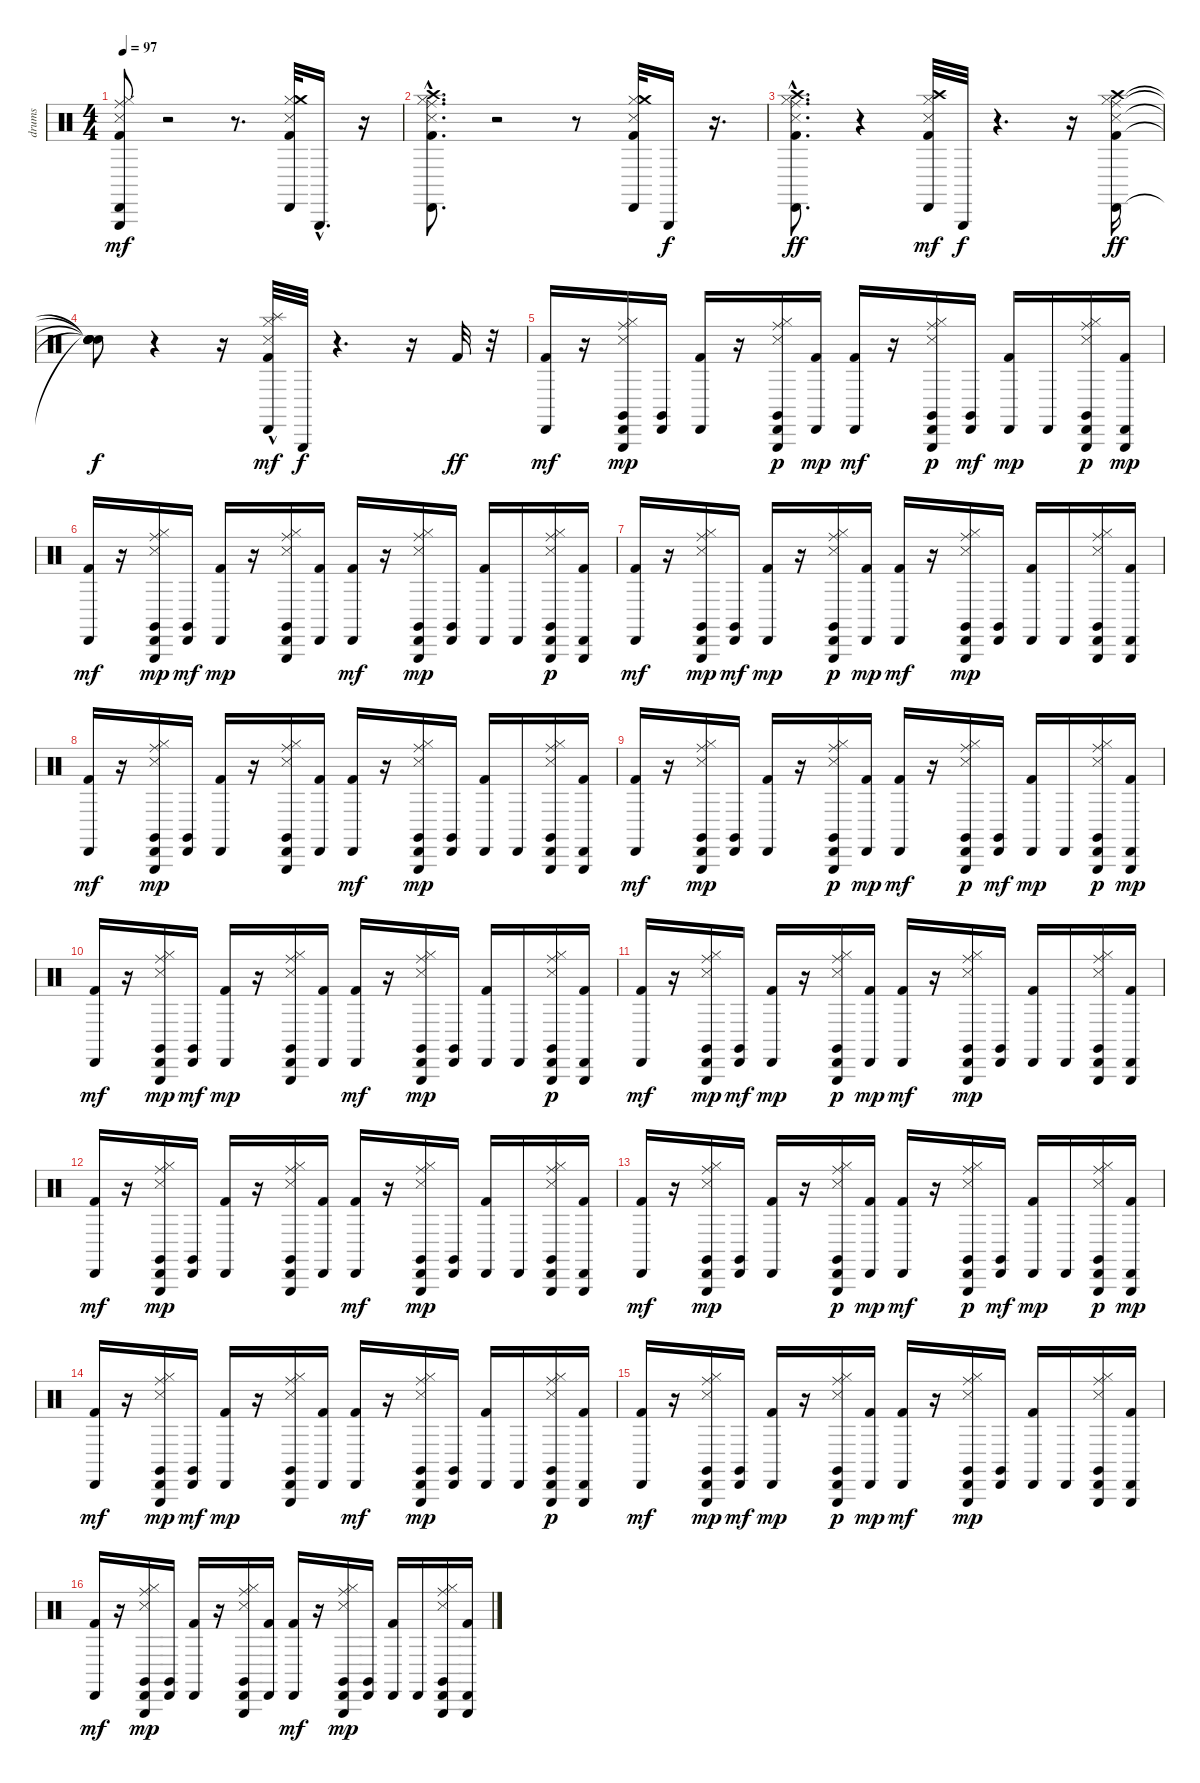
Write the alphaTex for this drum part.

\track ("drums" "drums") {instrument percussion}
\staff {score}
\articulation defaults
\ts (4 4)
\tempo 97
\clef neutral
\ks c
("Kick (hit) 2" "Snare (side stick) 3" "Hi-Hat (closed)" "Cabasa (hit)" "Ride (middle)" "Triangle (hit)").8{dy mf} r.2 r.8{d} ("Snare (side stick) 3" "Kick (hit) 2" "Hi-Hat (closed)" "Cabasa (hit)" "Crash medium (hit)").32 "Triangle (hit)"{hac}.16{d} r.16 |
("Kick (hit) 2" "Snare (side stick) 3" "Hi-Hat (closed)" "Cabasa (hit)" "Ride (middle)" "Crash high (hit)"{hac}).8{d} r.2 r.8 ("Kick (hit) 2" "Snare (side stick) 3" "Hi-Hat (closed)" "Cabasa (hit)" "Crash medium (hit)").32 "Triangle (hit)".16{dy f} r.16{d} |
("Kick (hit) 2" "Snare (side stick) 3" "Hi-Hat (closed)" "Cabasa (hit)" "Ride (middle)" "Crash high (hit)"{hac}).8{d dy ff} r.4 ("Kick (hit) 2" "Snare (side stick) 3" "Hi-Hat (closed)" "Cabasa (hit)" "Crash high (hit)").32{dy mf} "Triangle (hit)".32{dy f} r.4{d} r.16 ("Ride (middle)" "Kick (hit) 2" "Snare (side stick) 3" "Hi-Hat (closed)" "Cabasa (hit)" "Crash high (hit)").16{dy ff} |
("Snare (hit)"{t} "Snare (hit)"{t} "Snare (hit)"{t} "Snare (hit)"{t} "Snare (hit)"{t}).8{dy f} r.4 r.16 ("Kick (hit) 2"{hac} "Snare (side stick) 3" "Hi-Hat (closed)" "Cabasa (hit)" "Splash (hit)"{hac}).32{dy mf} "Triangle (hit)".32{dy f} r.4{d} r.16 "Kick (hit) 2".32{dy ff} r.32 |
("Kick (hit) 2" "Cabasa (hit)").16{dy mf} r.16 ("Snare (side stick) 3" "Hi-Hat (closed)" "Cabasa (hit)" "Claves (hit)" "Ride (middle)" "Triangle (hit)").16{dy mp} ("Cabasa (hit)" "Claves (hit)").16 ("Kick (hit) 2" "Cabasa (hit)").16 r.16 ("Snare (side stick) 3" "Hi-Hat (closed)" "Cabasa (hit)" "Claves (hit)" "Ride (middle)" "Triangle (hit)").16{dy p} ("Kick (hit) 2" "Cabasa (hit)").16{dy mp} ("Kick (hit) 2" "Cabasa (hit)").16{dy mf} r.16 ("Snare (side stick) 3" "Hi-Hat (closed)" "Cabasa (hit)" "Claves (hit)" "Ride (middle)" "Triangle (hit)").16{dy p} ("Cabasa (hit)" "Claves (hit)").16{dy mf} ("Kick (hit) 2" "Cabasa (hit)").16{dy mp} "Cabasa (hit)".16 ("Snare (side stick) 3" "Hi-Hat (closed)" "Cabasa (hit)" "Claves (hit)" "Ride (middle)" "Triangle (hit)").16{dy p} ("Kick (hit) 2" "Cabasa (hit)" "Triangle (hit)").16{dy mp} |
("Kick (hit) 2" "Cabasa (hit)").16{dy mf} r.16 ("Snare (side stick) 3" "Hi-Hat (closed)" "Cabasa (hit)" "Claves (hit)" "Ride (middle)" "Triangle (hit)").16{dy mp} ("Cabasa (hit)" "Claves (hit)").16{dy mf} ("Kick (hit) 2" "Cabasa (hit)").16{dy mp} r.16 ("Snare (side stick) 3" "Hi-Hat (closed)" "Cabasa (hit)" "Claves (hit)" "Ride (middle)" "Triangle (hit)").16 ("Kick (hit) 2" "Cabasa (hit)").16 ("Kick (hit) 2" "Cabasa (hit)").16{dy mf} r.16 ("Snare (side stick) 3" "Hi-Hat (closed)" "Cabasa (hit)" "Claves (hit)" "Ride (middle)" "Triangle (hit)").16{dy mp} ("Cabasa (hit)" "Claves (hit)").16 ("Kick (hit) 2" "Cabasa (hit)").16 "Cabasa (hit)".16 ("Snare (side stick) 3" "Hi-Hat (closed)" "Cabasa (hit)" "Claves (hit)" "Ride (middle)" "Triangle (hit)").16{dy p} ("Kick (hit) 2" "Cabasa (hit)" "Triangle (hit)").16 |
("Kick (hit) 2" "Cabasa (hit)").16{dy mf} r.16 ("Snare (side stick) 3" "Hi-Hat (closed)" "Cabasa (hit)" "Claves (hit)" "Ride (middle)" "Triangle (hit)").16{dy mp} ("Cabasa (hit)" "Claves (hit)").16{dy mf} ("Kick (hit) 2" "Cabasa (hit)").16{dy mp} r.16 ("Snare (side stick) 3" "Hi-Hat (closed)" "Cabasa (hit)" "Claves (hit)" "Ride (middle)" "Triangle (hit)").16{dy p} ("Kick (hit) 2" "Cabasa (hit)").16{dy mp} ("Kick (hit) 2" "Cabasa (hit)").16{dy mf} r.16 ("Snare (side stick) 3" "Hi-Hat (closed)" "Cabasa (hit)" "Claves (hit)" "Ride (middle)" "Triangle (hit)").16{dy mp} ("Cabasa (hit)" "Claves (hit)").16 ("Kick (hit) 2" "Cabasa (hit)").16 "Cabasa (hit)".16 ("Snare (side stick) 3" "Hi-Hat (closed)" "Cabasa (hit)" "Claves (hit)" "Ride (middle)" "Triangle (hit)").16 ("Kick (hit) 2" "Cabasa (hit)" "Triangle (hit)").16 |
("Kick (hit) 2" "Cabasa (hit)").16{dy mf} r.16 ("Snare (side stick) 3" "Hi-Hat (closed)" "Cabasa (hit)" "Claves (hit)" "Ride (middle)" "Triangle (hit)").16{dy mp} ("Cabasa (hit)" "Claves (hit)").16 ("Kick (hit) 2" "Cabasa (hit)").16 r.16 ("Snare (side stick) 3" "Hi-Hat (closed)" "Cabasa (hit)" "Claves (hit)" "Ride (middle)" "Triangle (hit)").16 ("Kick (hit) 2" "Cabasa (hit)").16 ("Kick (hit) 2" "Cabasa (hit)").16{dy mf} r.16 ("Snare (side stick) 3" "Hi-Hat (closed)" "Cabasa (hit)" "Claves (hit)" "Ride (middle)" "Triangle (hit)").16{dy mp} ("Cabasa (hit)" "Claves (hit)").16 ("Kick (hit) 2" "Cabasa (hit)").16 "Cabasa (hit)".16 ("Snare (side stick) 3" "Hi-Hat (closed)" "Cabasa (hit)" "Claves (hit)" "Ride (middle)" "Triangle (hit)").16 ("Kick (hit) 2" "Cabasa (hit)" "Triangle (hit)").16 |
("Kick (hit) 2" "Cabasa (hit)").16{dy mf} r.16 ("Snare (side stick) 3" "Hi-Hat (closed)" "Cabasa (hit)" "Claves (hit)" "Ride (middle)" "Triangle (hit)").16{dy mp} ("Cabasa (hit)" "Claves (hit)").16 ("Kick (hit) 2" "Cabasa (hit)").16 r.16 ("Snare (side stick) 3" "Hi-Hat (closed)" "Cabasa (hit)" "Claves (hit)" "Ride (middle)" "Triangle (hit)").16{dy p} ("Kick (hit) 2" "Cabasa (hit)").16{dy mp} ("Kick (hit) 2" "Cabasa (hit)").16{dy mf} r.16 ("Snare (side stick) 3" "Hi-Hat (closed)" "Cabasa (hit)" "Claves (hit)" "Ride (middle)" "Triangle (hit)").16{dy p} ("Cabasa (hit)" "Claves (hit)").16{dy mf} ("Kick (hit) 2" "Cabasa (hit)").16{dy mp} "Cabasa (hit)".16 ("Snare (side stick) 3" "Hi-Hat (closed)" "Cabasa (hit)" "Claves (hit)" "Ride (middle)" "Triangle (hit)").16{dy p} ("Kick (hit) 2" "Cabasa (hit)" "Triangle (hit)").16{dy mp} |
("Kick (hit) 2" "Cabasa (hit)").16{dy mf} r.16 ("Snare (side stick) 3" "Hi-Hat (closed)" "Cabasa (hit)" "Claves (hit)" "Ride (middle)" "Triangle (hit)").16{dy mp} ("Cabasa (hit)" "Claves (hit)").16{dy mf} ("Kick (hit) 2" "Cabasa (hit)").16{dy mp} r.16 ("Snare (side stick) 3" "Hi-Hat (closed)" "Cabasa (hit)" "Claves (hit)" "Ride (middle)" "Triangle (hit)").16 ("Kick (hit) 2" "Cabasa (hit)").16 ("Kick (hit) 2" "Cabasa (hit)").16{dy mf} r.16 ("Snare (side stick) 3" "Hi-Hat (closed)" "Cabasa (hit)" "Claves (hit)" "Ride (middle)" "Triangle (hit)").16{dy mp} ("Cabasa (hit)" "Claves (hit)").16 ("Kick (hit) 2" "Cabasa (hit)").16 "Cabasa (hit)".16 ("Snare (side stick) 3" "Hi-Hat (closed)" "Cabasa (hit)" "Claves (hit)" "Ride (middle)" "Triangle (hit)").16{dy p} ("Kick (hit) 2" "Cabasa (hit)" "Triangle (hit)").16 |
("Kick (hit) 2" "Cabasa (hit)").16{dy mf} r.16 ("Snare (side stick) 3" "Hi-Hat (closed)" "Cabasa (hit)" "Claves (hit)" "Ride (middle)" "Triangle (hit)").16{dy mp} ("Cabasa (hit)" "Claves (hit)").16{dy mf} ("Kick (hit) 2" "Cabasa (hit)").16{dy mp} r.16 ("Snare (side stick) 3" "Hi-Hat (closed)" "Cabasa (hit)" "Claves (hit)" "Ride (middle)" "Triangle (hit)").16{dy p} ("Kick (hit) 2" "Cabasa (hit)").16{dy mp} ("Kick (hit) 2" "Cabasa (hit)").16{dy mf} r.16 ("Snare (side stick) 3" "Hi-Hat (closed)" "Cabasa (hit)" "Claves (hit)" "Ride (middle)" "Triangle (hit)").16{dy mp} ("Cabasa (hit)" "Claves (hit)").16 ("Kick (hit) 2" "Cabasa (hit)").16 "Cabasa (hit)".16 ("Snare (side stick) 3" "Hi-Hat (closed)" "Cabasa (hit)" "Claves (hit)" "Ride (middle)" "Triangle (hit)").16 ("Kick (hit) 2" "Cabasa (hit)" "Triangle (hit)").16 |
("Kick (hit) 2" "Cabasa (hit)").16{dy mf} r.16 ("Snare (side stick) 3" "Hi-Hat (closed)" "Cabasa (hit)" "Claves (hit)" "Ride (middle)" "Triangle (hit)").16{dy mp} ("Cabasa (hit)" "Claves (hit)").16 ("Kick (hit) 2" "Cabasa (hit)").16 r.16 ("Snare (side stick) 3" "Hi-Hat (closed)" "Cabasa (hit)" "Claves (hit)" "Ride (middle)" "Triangle (hit)").16 ("Kick (hit) 2" "Cabasa (hit)").16 ("Kick (hit) 2" "Cabasa (hit)").16{dy mf} r.16 ("Snare (side stick) 3" "Hi-Hat (closed)" "Cabasa (hit)" "Claves (hit)" "Ride (middle)" "Triangle (hit)").16{dy mp} ("Cabasa (hit)" "Claves (hit)").16 ("Kick (hit) 2" "Cabasa (hit)").16 "Cabasa (hit)".16 ("Snare (side stick) 3" "Hi-Hat (closed)" "Cabasa (hit)" "Claves (hit)" "Ride (middle)" "Triangle (hit)").16 ("Kick (hit) 2" "Cabasa (hit)" "Triangle (hit)").16 |
("Kick (hit) 2" "Cabasa (hit)").16{dy mf} r.16 ("Snare (side stick) 3" "Hi-Hat (closed)" "Cabasa (hit)" "Claves (hit)" "Ride (middle)" "Triangle (hit)").16{dy mp} ("Cabasa (hit)" "Claves (hit)").16 ("Kick (hit) 2" "Cabasa (hit)").16 r.16 ("Snare (side stick) 3" "Hi-Hat (closed)" "Cabasa (hit)" "Claves (hit)" "Ride (middle)" "Triangle (hit)").16{dy p} ("Kick (hit) 2" "Cabasa (hit)").16{dy mp} ("Kick (hit) 2" "Cabasa (hit)").16{dy mf} r.16 ("Snare (side stick) 3" "Hi-Hat (closed)" "Cabasa (hit)" "Claves (hit)" "Ride (middle)" "Triangle (hit)").16{dy p} ("Cabasa (hit)" "Claves (hit)").16{dy mf} ("Kick (hit) 2" "Cabasa (hit)").16{dy mp} "Cabasa (hit)".16 ("Snare (side stick) 3" "Hi-Hat (closed)" "Cabasa (hit)" "Claves (hit)" "Ride (middle)" "Triangle (hit)").16{dy p} ("Kick (hit) 2" "Cabasa (hit)" "Triangle (hit)").16{dy mp} |
("Kick (hit) 2" "Cabasa (hit)").16{dy mf} r.16 ("Snare (side stick) 3" "Hi-Hat (closed)" "Cabasa (hit)" "Claves (hit)" "Ride (middle)" "Triangle (hit)").16{dy mp} ("Cabasa (hit)" "Claves (hit)").16{dy mf} ("Kick (hit) 2" "Cabasa (hit)").16{dy mp} r.16 ("Snare (side stick) 3" "Hi-Hat (closed)" "Cabasa (hit)" "Claves (hit)" "Ride (middle)" "Triangle (hit)").16 ("Kick (hit) 2" "Cabasa (hit)").16 ("Kick (hit) 2" "Cabasa (hit)").16{dy mf} r.16 ("Snare (side stick) 3" "Hi-Hat (closed)" "Cabasa (hit)" "Claves (hit)" "Ride (middle)" "Triangle (hit)").16{dy mp} ("Cabasa (hit)" "Claves (hit)").16 ("Kick (hit) 2" "Cabasa (hit)").16 "Cabasa (hit)".16 ("Snare (side stick) 3" "Hi-Hat (closed)" "Cabasa (hit)" "Claves (hit)" "Ride (middle)" "Triangle (hit)").16{dy p} ("Kick (hit) 2" "Cabasa (hit)" "Triangle (hit)").16 |
("Kick (hit) 2" "Cabasa (hit)").16{dy mf} r.16 ("Snare (side stick) 3" "Hi-Hat (closed)" "Cabasa (hit)" "Claves (hit)" "Ride (middle)" "Triangle (hit)").16{dy mp} ("Cabasa (hit)" "Claves (hit)").16{dy mf} ("Kick (hit) 2" "Cabasa (hit)").16{dy mp} r.16 ("Snare (side stick) 3" "Hi-Hat (closed)" "Cabasa (hit)" "Claves (hit)" "Ride (middle)" "Triangle (hit)").16{dy p} ("Kick (hit) 2" "Cabasa (hit)").16{dy mp} ("Kick (hit) 2" "Cabasa (hit)").16{dy mf} r.16 ("Snare (side stick) 3" "Hi-Hat (closed)" "Cabasa (hit)" "Claves (hit)" "Ride (middle)" "Triangle (hit)").16{dy mp} ("Cabasa (hit)" "Claves (hit)").16 ("Kick (hit) 2" "Cabasa (hit)").16 "Cabasa (hit)".16 ("Snare (side stick) 3" "Hi-Hat (closed)" "Cabasa (hit)" "Claves (hit)" "Ride (middle)" "Triangle (hit)").16 ("Kick (hit) 2" "Cabasa (hit)" "Triangle (hit)").16 |
("Kick (hit) 2" "Cabasa (hit)").16{dy mf} r.16 ("Snare (side stick) 3" "Hi-Hat (closed)" "Cabasa (hit)" "Claves (hit)" "Ride (middle)" "Triangle (hit)").16{dy mp} ("Cabasa (hit)" "Claves (hit)").16 ("Kick (hit) 2" "Cabasa (hit)").16 r.16 ("Snare (side stick) 3" "Hi-Hat (closed)" "Cabasa (hit)" "Claves (hit)" "Ride (middle)" "Triangle (hit)").16 ("Kick (hit) 2" "Cabasa (hit)").16 ("Kick (hit) 2" "Cabasa (hit)").16{dy mf} r.16 ("Snare (side stick) 3" "Hi-Hat (closed)" "Cabasa (hit)" "Claves (hit)" "Ride (middle)" "Triangle (hit)").16{dy mp} ("Cabasa (hit)" "Claves (hit)").16 ("Kick (hit) 2" "Cabasa (hit)").16 "Cabasa (hit)".16 ("Snare (side stick) 3" "Hi-Hat (closed)" "Cabasa (hit)" "Claves (hit)" "Ride (middle)" "Triangle (hit)").16 ("Kick (hit) 2" "Cabasa (hit)" "Triangle (hit)").16
